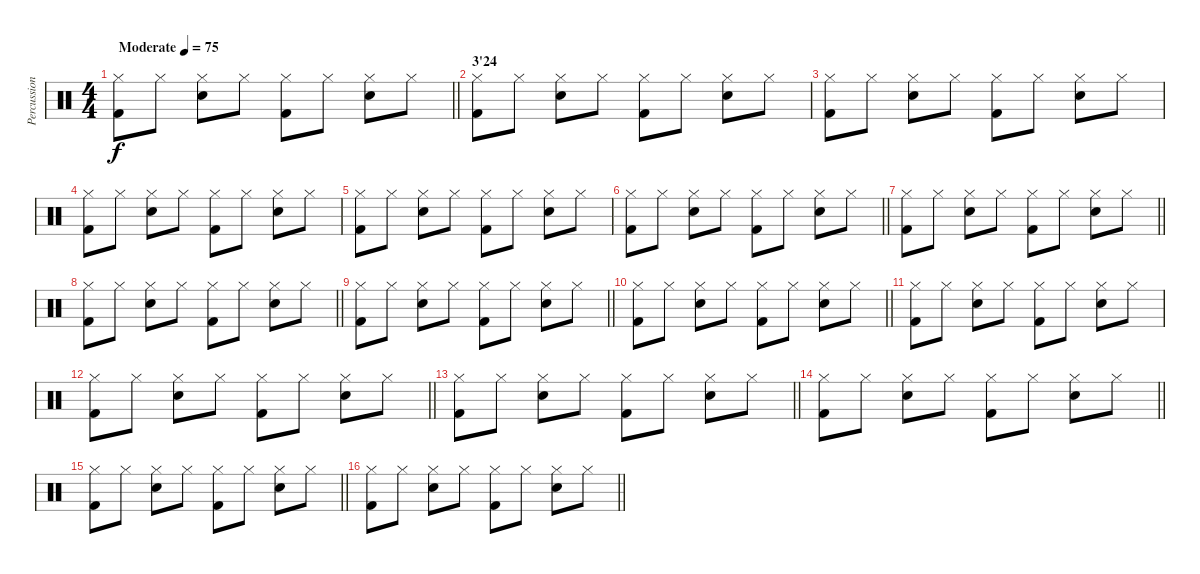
\track ("Percussions" "Percussion") {instrument percussion}
\staff {score}
\articulation defaults
\ts (4 4)
\tempo (75 "Moderate")
\clef neutral
\barLineRight lightlight
\ks c
("Hi-Hat (closed)" "Kick (hit) 2").8{dy f} "Hi-Hat (closed)".8 ("Hi-Hat (closed)" "Snare (hit) 2").8 "Hi-Hat (closed)".8 ("Hi-Hat (closed)" "Kick (hit) 2").8 "Hi-Hat (closed)".8 ("Hi-Hat (closed)" "Snare (hit) 2").8 "Hi-Hat (closed)".8 |
\section ("" "3'24")
("Hi-Hat (closed)" "Kick (hit) 2").8 "Hi-Hat (closed)".8 ("Hi-Hat (closed)" "Snare (hit) 2").8 "Hi-Hat (closed)".8 ("Hi-Hat (closed)" "Kick (hit) 2").8 "Hi-Hat (closed)".8 ("Hi-Hat (closed)" "Snare (hit) 2").8 "Hi-Hat (closed)".8 |
("Hi-Hat (closed)" "Kick (hit) 2").8 "Hi-Hat (closed)".8 ("Hi-Hat (closed)" "Snare (hit) 2").8 "Hi-Hat (closed)".8 ("Hi-Hat (closed)" "Kick (hit) 2").8 "Hi-Hat (closed)".8 ("Hi-Hat (closed)" "Snare (hit) 2").8 "Hi-Hat (closed)".8 |
("Hi-Hat (closed)" "Kick (hit) 2").8 "Hi-Hat (closed)".8 ("Hi-Hat (closed)" "Snare (hit) 2").8 "Hi-Hat (closed)".8 ("Hi-Hat (closed)" "Kick (hit) 2").8 "Hi-Hat (closed)".8 ("Hi-Hat (closed)" "Snare (hit) 2").8 "Hi-Hat (closed)".8 |
("Hi-Hat (closed)" "Kick (hit) 2").8 "Hi-Hat (closed)".8 ("Hi-Hat (closed)" "Snare (hit) 2").8 "Hi-Hat (closed)".8 ("Hi-Hat (closed)" "Kick (hit) 2").8 "Hi-Hat (closed)".8 ("Hi-Hat (closed)" "Snare (hit) 2").8 "Hi-Hat (closed)".8 |
\barLineRight lightlight
("Hi-Hat (closed)" "Kick (hit) 2").8 "Hi-Hat (closed)".8 ("Hi-Hat (closed)" "Snare (hit) 2").8 "Hi-Hat (closed)".8 ("Hi-Hat (closed)" "Kick (hit) 2").8 "Hi-Hat (closed)".8 ("Hi-Hat (closed)" "Snare (hit) 2").8 "Hi-Hat (closed)".8 |
\barLineRight lightlight
("Hi-Hat (closed)" "Kick (hit) 2").8 "Hi-Hat (closed)".8 ("Hi-Hat (closed)" "Snare (hit) 2").8 "Hi-Hat (closed)".8 ("Hi-Hat (closed)" "Kick (hit) 2").8 "Hi-Hat (closed)".8 ("Hi-Hat (closed)" "Snare (hit) 2").8 "Hi-Hat (closed)".8 |
\barLineRight lightlight
("Hi-Hat (closed)" "Kick (hit) 2").8 "Hi-Hat (closed)".8 ("Hi-Hat (closed)" "Snare (hit) 2").8 "Hi-Hat (closed)".8 ("Hi-Hat (closed)" "Kick (hit) 2").8 "Hi-Hat (closed)".8 ("Hi-Hat (closed)" "Snare (hit) 2").8 "Hi-Hat (closed)".8 |
\barLineRight lightlight
("Hi-Hat (closed)" "Kick (hit) 2").8 "Hi-Hat (closed)".8 ("Hi-Hat (closed)" "Snare (hit) 2").8 "Hi-Hat (closed)".8 ("Hi-Hat (closed)" "Kick (hit) 2").8 "Hi-Hat (closed)".8 ("Hi-Hat (closed)" "Snare (hit) 2").8 "Hi-Hat (closed)".8 |
\barLineRight lightlight
("Hi-Hat (closed)" "Kick (hit) 2").8 "Hi-Hat (closed)".8 ("Hi-Hat (closed)" "Snare (hit) 2").8 "Hi-Hat (closed)".8 ("Hi-Hat (closed)" "Kick (hit) 2").8 "Hi-Hat (closed)".8 ("Hi-Hat (closed)" "Snare (hit) 2").8 "Hi-Hat (closed)".8 |
("Hi-Hat (closed)" "Kick (hit) 2").8 "Hi-Hat (closed)".8 ("Hi-Hat (closed)" "Snare (hit) 2").8 "Hi-Hat (closed)".8 ("Hi-Hat (closed)" "Kick (hit) 2").8 "Hi-Hat (closed)".8 ("Hi-Hat (closed)" "Snare (hit) 2").8 "Hi-Hat (closed)".8 |
\barLineRight lightlight
("Hi-Hat (closed)" "Kick (hit) 2").8 "Hi-Hat (closed)".8 ("Hi-Hat (closed)" "Snare (hit) 2").8 "Hi-Hat (closed)".8 ("Hi-Hat (closed)" "Kick (hit) 2").8 "Hi-Hat (closed)".8 ("Hi-Hat (closed)" "Snare (hit) 2").8 "Hi-Hat (closed)".8 |
\barLineRight lightlight
("Hi-Hat (closed)" "Kick (hit) 2").8 "Hi-Hat (closed)".8 ("Hi-Hat (closed)" "Snare (hit) 2").8 "Hi-Hat (closed)".8 ("Hi-Hat (closed)" "Kick (hit) 2").8 "Hi-Hat (closed)".8 ("Hi-Hat (closed)" "Snare (hit) 2").8 "Hi-Hat (closed)".8 |
\barLineRight lightlight
("Hi-Hat (closed)" "Kick (hit) 2").8 "Hi-Hat (closed)".8 ("Hi-Hat (closed)" "Snare (hit) 2").8 "Hi-Hat (closed)".8 ("Hi-Hat (closed)" "Kick (hit) 2").8 "Hi-Hat (closed)".8 ("Hi-Hat (closed)" "Snare (hit) 2").8 "Hi-Hat (closed)".8 |
\barLineRight lightlight
("Hi-Hat (closed)" "Kick (hit) 2").8 "Hi-Hat (closed)".8 ("Hi-Hat (closed)" "Snare (hit) 2").8 "Hi-Hat (closed)".8 ("Hi-Hat (closed)" "Kick (hit) 2").8 "Hi-Hat (closed)".8 ("Hi-Hat (closed)" "Snare (hit) 2").8 "Hi-Hat (closed)".8 |
\barLineRight lightlight
("Hi-Hat (closed)" "Kick (hit) 2").8 "Hi-Hat (closed)".8 ("Hi-Hat (closed)" "Snare (hit) 2").8 "Hi-Hat (closed)".8 ("Hi-Hat (closed)" "Kick (hit) 2").8 "Hi-Hat (closed)".8 ("Hi-Hat (closed)" "Snare (hit) 2").8 "Hi-Hat (closed)".8
